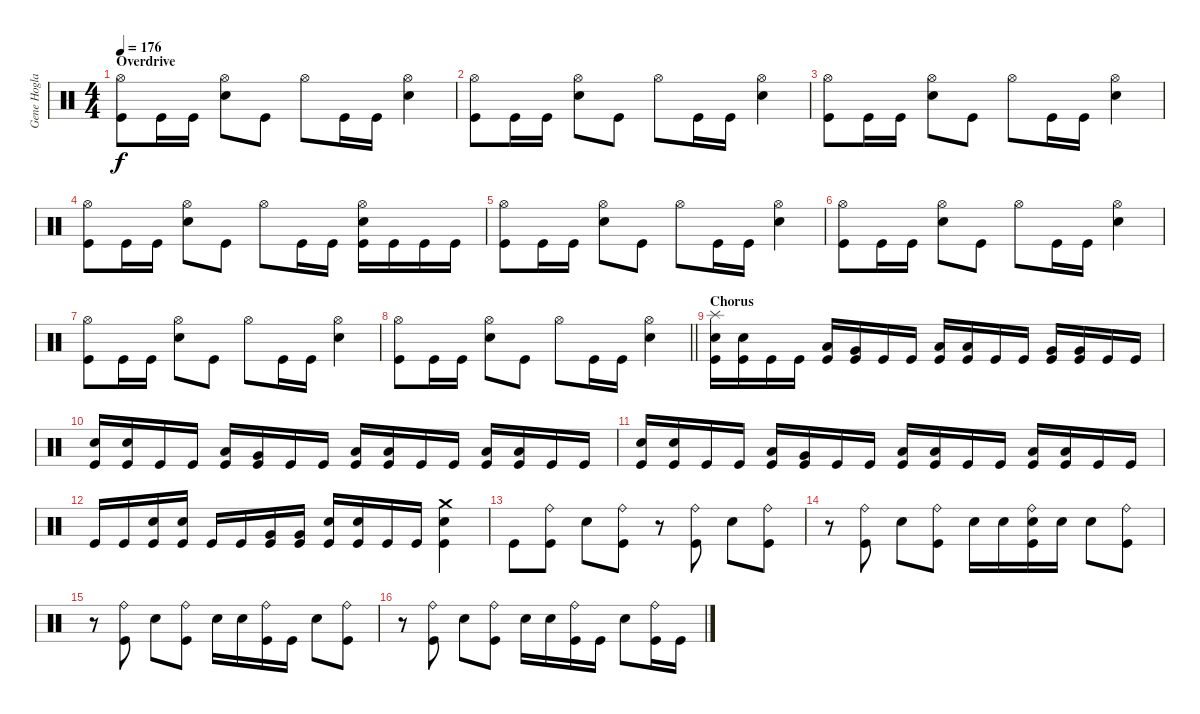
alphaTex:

\track ("Gene Hoglan " "Gene Hogla") {instrument percussion}
\staff {score}
\articulation defaults
\ts (4 4)
\section ("" "Overdrive")
\tempo 176
\clef neutral
\ks c
("Hi-Hat (open)" "Kick (hit)").8{dy f} "Kick (hit)".16 "Kick (hit)".16 ("Hi-Hat (open)" "Snare (hit) 2").8 "Kick (hit)".8 "Hi-Hat (open)".8 "Kick (hit)".16 "Kick (hit)".16 ("Hi-Hat (open)" "Snare (hit) 2").4 |
("Hi-Hat (open)" "Kick (hit)").8 "Kick (hit)".16 "Kick (hit)".16 ("Hi-Hat (open)" "Snare (hit) 2").8 "Kick (hit)".8 "Hi-Hat (open)".8 "Kick (hit)".16 "Kick (hit)".16 ("Hi-Hat (open)" "Snare (hit) 2").4 |
("Hi-Hat (open)" "Kick (hit)").8 "Kick (hit)".16 "Kick (hit)".16 ("Hi-Hat (open)" "Snare (hit) 2").8 "Kick (hit)".8 "Hi-Hat (open)".8 "Kick (hit)".16 "Kick (hit)".16 ("Hi-Hat (open)" "Snare (hit) 2").4 |
("Hi-Hat (open)" "Kick (hit)").8 "Kick (hit)".16 "Kick (hit)".16 ("Hi-Hat (open)" "Snare (hit) 2").8 "Kick (hit)".8 "Hi-Hat (open)".8 "Kick (hit)".16 "Kick (hit)".16 ("Hi-Hat (open)" "Snare (hit) 2" "Kick (hit)").16 "Kick (hit)".16 "Kick (hit)".16 "Kick (hit)".16 |
("Hi-Hat (open)" "Kick (hit)").8 "Kick (hit)".16 "Kick (hit)".16 ("Hi-Hat (open)" "Snare (hit) 2").8 "Kick (hit)".8 "Hi-Hat (open)".8 "Kick (hit)".16 "Kick (hit)".16 ("Hi-Hat (open)" "Snare (hit) 2").4 |
("Hi-Hat (open)" "Kick (hit)").8 "Kick (hit)".16 "Kick (hit)".16 ("Hi-Hat (open)" "Snare (hit) 2").8 "Kick (hit)".8 "Hi-Hat (open)".8 "Kick (hit)".16 "Kick (hit)".16 ("Hi-Hat (open)" "Snare (hit) 2").4 |
("Hi-Hat (open)" "Kick (hit)").8 "Kick (hit)".16 "Kick (hit)".16 ("Hi-Hat (open)" "Snare (hit) 2").8 "Kick (hit)".8 "Hi-Hat (open)".8 "Kick (hit)".16 "Kick (hit)".16 ("Hi-Hat (open)" "Snare (hit) 2").4 |
\barLineRight lightlight
("Hi-Hat (open)" "Kick (hit)").8 "Kick (hit)".16 "Kick (hit)".16 ("Hi-Hat (open)" "Snare (hit) 2").8 "Kick (hit)".8 "Hi-Hat (open)".8 "Kick (hit)".16 "Kick (hit)".16 ("Hi-Hat (open)" "Snare (hit) 2").4 |
\section ("" "Chorus")
("Splash (hit)" "Snare (hit) 2" "Kick (hit)").16 ("Snare (hit) 2" "Kick (hit)").16 "Kick (hit)".16 "Kick (hit)".16 ("Low Tom (hit)" "Kick (hit)").16 ("Very Low Tom (hit)" "Kick (hit)").16 "Kick (hit)".16 "Kick (hit)".16 ("Low Tom (hit)" "Kick (hit)").16 ("Low Tom (hit)" "Kick (hit)").16 "Kick (hit)".16 "Kick (hit)".16 ("Very Low Tom (hit)" "Kick (hit)").16 ("Very Low Tom (hit)" "Kick (hit)").16 "Kick (hit)".16 "Kick (hit)".16 |
("Snare (hit) 2" "Kick (hit)").16 ("Snare (hit) 2" "Kick (hit)").16 "Kick (hit)".16 "Kick (hit)".16 ("Low Tom (hit)" "Kick (hit)").16 ("Very Low Tom (hit)" "Kick (hit)").16 "Kick (hit)".16 "Kick (hit)".16 ("Low Tom (hit)" "Kick (hit)").16 ("Low Tom (hit)" "Kick (hit)").16 "Kick (hit)".16 "Kick (hit)".16 ("Low Floor Tom (hit)" "Kick (hit)").16 ("Low Floor Tom (hit)" "Kick (hit)").16 "Kick (hit)".16 "Kick (hit)".16 |
("Snare (hit) 2" "Kick (hit)").16 ("Snare (hit) 2" "Kick (hit)").16 "Kick (hit)".16 "Kick (hit)".16 ("Low Tom (hit)" "Kick (hit)").16 ("Very Low Tom (hit)" "Kick (hit)").16 "Kick (hit)".16 "Kick (hit)".16 ("Low Tom (hit)" "Kick (hit)").16 ("Low Tom (hit)" "Kick (hit)").16 "Kick (hit)".16 "Kick (hit)".16 ("Low Floor Tom (hit)" "Kick (hit)").16 ("Low Floor Tom (hit)" "Kick (hit)").16 "Kick (hit)".16 "Kick (hit)".16 |
"Kick (hit)".16 "Kick (hit)".16 ("Snare (hit) 2" "Kick (hit)").16 ("Snare (hit) 2" "Kick (hit)").16 "Kick (hit)".16 "Kick (hit)".16 ("Very Low Tom (hit)" "Kick (hit)").16 ("Very Low Tom (hit)" "Kick (hit)").16 ("Snare (hit) 2" "Kick (hit)").16 ("Snare (hit) 2" "Kick (hit)").16 "Kick (hit)".16 "Kick (hit)".16 ("Crash medium (hit)" "Snare (hit) 2" "Kick (hit)").4 |
"Kick (hit)".8 ("Ride (bell)" "Kick (hit)").8 "Snare (hit) 2".8 ("Ride (bell)" "Kick (hit)").8 r.8 ("Ride (bell)" "Kick (hit)").8 "Snare (hit) 2".8 ("Ride (bell)" "Kick (hit)").8 |
r.8 ("Ride (bell)" "Kick (hit)").8 "Snare (hit) 2".8 ("Ride (bell)" "Kick (hit)").8 "Snare (hit) 2".16 "Snare (hit) 2".16 ("Ride (bell)" "Snare (hit) 2" "Kick (hit)").16 "Snare (hit) 2".16 "Snare (hit) 2".8 ("Ride (bell)" "Kick (hit)").8 |
r.8 ("Ride (bell)" "Kick (hit)").8 "Snare (hit) 2".8 ("Ride (bell)" "Kick (hit)").8 "Snare (hit) 2".16 "Snare (hit) 2".16 ("Ride (bell)" "Kick (hit)").16 "Kick (hit)".16 "Snare (hit) 2".8 ("Ride (bell)" "Kick (hit)").8 |
r.8 ("Ride (bell)" "Kick (hit)").8 "Snare (hit) 2".8 ("Ride (bell)" "Kick (hit)").8 "Snare (hit) 2".16 "Snare (hit) 2".16 ("Ride (bell)" "Kick (hit)").16 "Kick (hit)".16 "Snare (hit) 2".8 ("Ride (bell)" "Kick (hit)").16 "Kick (hit)".16
